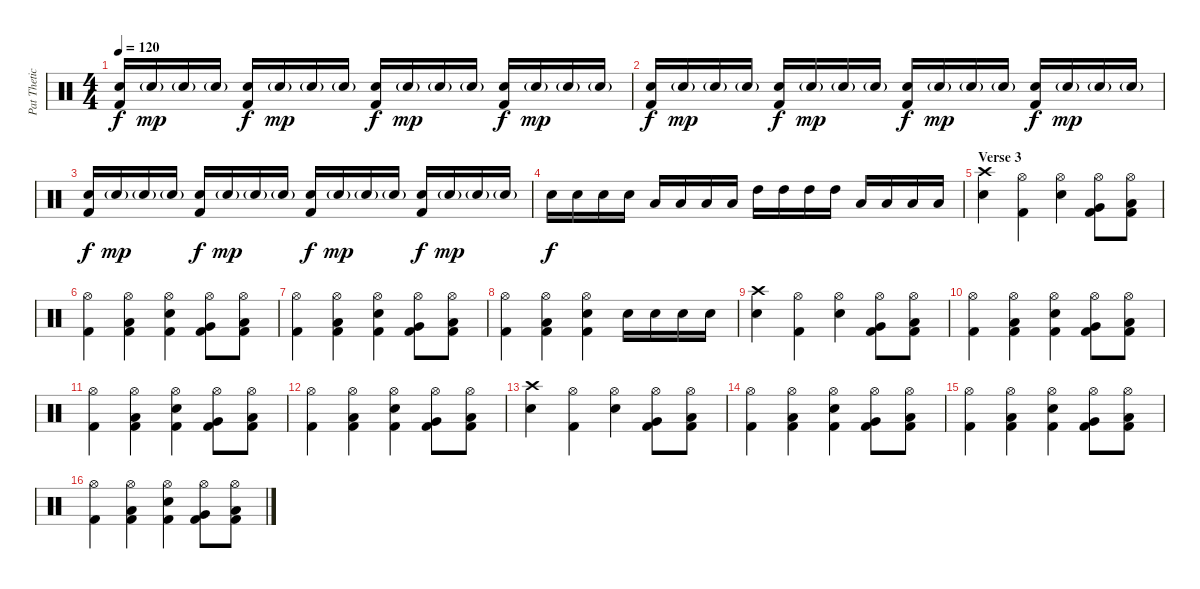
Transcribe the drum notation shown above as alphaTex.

\track ("Pat Thetic (Drums)" "Pat Thetic") {instrument percussion}
\staff {score}
\articulation defaults
\ts (4 4)
\tempo 120
\clef neutral
\ks c
("Electric Snare (hit)" "Kick (hit) 2").16{dy f} "Electric Snare (hit)"{g}.16{dy mp} "Electric Snare (hit)"{g}.16 "Electric Snare (hit)"{g}.16 ("Electric Snare (hit)" "Kick (hit) 2").16{dy f} "Electric Snare (hit)"{g}.16{dy mp} "Electric Snare (hit)"{g}.16 "Electric Snare (hit)"{g}.16 ("Electric Snare (hit)" "Kick (hit) 2").16{dy f} "Electric Snare (hit)"{g}.16{dy mp} "Electric Snare (hit)"{g}.16 "Electric Snare (hit)"{g}.16 ("Electric Snare (hit)" "Kick (hit) 2").16{dy f} "Electric Snare (hit)"{g}.16{dy mp} "Electric Snare (hit)"{g}.16 "Electric Snare (hit)"{g}.16 |
("Electric Snare (hit)" "Kick (hit) 2").16{dy f} "Electric Snare (hit)"{g}.16{dy mp} "Electric Snare (hit)"{g}.16 "Electric Snare (hit)"{g}.16 ("Electric Snare (hit)" "Kick (hit) 2").16{dy f} "Electric Snare (hit)"{g}.16{dy mp} "Electric Snare (hit)"{g}.16 "Electric Snare (hit)"{g}.16 ("Electric Snare (hit)" "Kick (hit) 2").16{dy f} "Electric Snare (hit)"{g}.16{dy mp} "Electric Snare (hit)"{g}.16 "Electric Snare (hit)"{g}.16 ("Electric Snare (hit)" "Kick (hit) 2").16{dy f} "Electric Snare (hit)"{g}.16{dy mp} "Electric Snare (hit)"{g}.16 "Electric Snare (hit)"{g}.16 |
("Electric Snare (hit)" "Kick (hit) 2").16{dy f} "Electric Snare (hit)"{g}.16{dy mp} "Electric Snare (hit)"{g}.16 "Electric Snare (hit)"{g}.16 ("Electric Snare (hit)" "Kick (hit) 2").16{dy f} "Electric Snare (hit)"{g}.16{dy mp} "Electric Snare (hit)"{g}.16 "Electric Snare (hit)"{g}.16 ("Electric Snare (hit)" "Kick (hit) 2").16{dy f} "Electric Snare (hit)"{g}.16{dy mp} "Electric Snare (hit)"{g}.16 "Electric Snare (hit)"{g}.16 ("Electric Snare (hit)" "Kick (hit) 2").16{dy f} "Electric Snare (hit)"{g}.16{dy mp} "Electric Snare (hit)"{g}.16 "Electric Snare (hit)"{g}.16 |
"Electric Snare (hit)".16{dy f} "Electric Snare (hit)".16 "Electric Snare (hit)".16 "Electric Snare (hit)".16 "Low Tom (hit)".16 "Low Tom (hit)".16 "Low Tom (hit)".16 "Low Tom (hit)".16 "High Tom (hit)".16 "High Tom (hit)".16 "High Tom (hit)".16 "High Tom (hit)".16 "Low Floor Tom (hit)".16 "Low Floor Tom (hit)".16 "Low Floor Tom (hit)".16 "Low Floor Tom (hit)".16 |
\section ("" "Verse 3")
("Crash high (hit)" "Electric Snare (hit)").4 ("Hi-Hat (open)" "Kick (hit) 2").4 ("Hi-Hat (open)" "Electric Snare (hit)").4 ("Hi-Hat (open)" "Very Low Tom (hit)" "Kick (hit) 2").8 ("Hi-Hat (open)" "Low Floor Tom (hit)" "Kick (hit) 2").8 |
("Hi-Hat (open)" "Kick (hit) 2").4 ("Hi-Hat (open)" "Low Floor Tom (hit)" "Kick (hit) 2").4 ("Hi-Hat (open)" "Electric Snare (hit)" "Kick (hit) 2").4 ("Hi-Hat (open)" "Very Low Tom (hit)" "Kick (hit) 2").8 ("Hi-Hat (open)" "Low Floor Tom (hit)" "Kick (hit) 2").8 |
("Hi-Hat (open)" "Kick (hit) 2").4 ("Hi-Hat (open)" "Low Floor Tom (hit)" "Kick (hit) 2").4 ("Hi-Hat (open)" "Electric Snare (hit)" "Kick (hit) 2").4 ("Hi-Hat (open)" "Very Low Tom (hit)" "Kick (hit) 2").8 ("Hi-Hat (open)" "Low Floor Tom (hit)" "Kick (hit) 2").8 |
("Hi-Hat (open)" "Kick (hit) 2").4 ("Hi-Hat (open)" "Low Floor Tom (hit)" "Kick (hit) 2").4 ("Hi-Hat (open)" "Electric Snare (hit)" "Kick (hit) 2").4 "Electric Snare (hit)".16 "Electric Snare (hit)".16 "Electric Snare (hit)".16 "Electric Snare (hit)".16 |
("Crash high (hit)" "Electric Snare (hit)").4 ("Hi-Hat (open)" "Kick (hit) 2").4 ("Hi-Hat (open)" "Electric Snare (hit)").4 ("Hi-Hat (open)" "Very Low Tom (hit)" "Kick (hit) 2").8 ("Hi-Hat (open)" "Low Floor Tom (hit)" "Kick (hit) 2").8 |
("Hi-Hat (open)" "Kick (hit) 2").4 ("Hi-Hat (open)" "Low Floor Tom (hit)" "Kick (hit) 2").4 ("Hi-Hat (open)" "Electric Snare (hit)" "Kick (hit) 2").4 ("Hi-Hat (open)" "Very Low Tom (hit)" "Kick (hit) 2").8 ("Hi-Hat (open)" "Low Floor Tom (hit)" "Kick (hit) 2").8 |
("Hi-Hat (open)" "Kick (hit) 2").4 ("Hi-Hat (open)" "Low Floor Tom (hit)" "Kick (hit) 2").4 ("Hi-Hat (open)" "Electric Snare (hit)" "Kick (hit) 2").4 ("Hi-Hat (open)" "Very Low Tom (hit)" "Kick (hit) 2").8 ("Hi-Hat (open)" "Low Floor Tom (hit)" "Kick (hit) 2").8 |
("Hi-Hat (open)" "Kick (hit) 2").4 ("Hi-Hat (open)" "Low Floor Tom (hit)" "Kick (hit) 2").4 ("Hi-Hat (open)" "Electric Snare (hit)" "Kick (hit) 2").4 ("Hi-Hat (open)" "Very Low Tom (hit)" "Kick (hit) 2").8 ("Hi-Hat (open)" "Low Floor Tom (hit)" "Kick (hit) 2").8 |
("Crash high (hit)" "Electric Snare (hit)").4 ("Hi-Hat (open)" "Kick (hit) 2").4 ("Hi-Hat (open)" "Electric Snare (hit)").4 ("Hi-Hat (open)" "Very Low Tom (hit)" "Kick (hit) 2").8 ("Hi-Hat (open)" "Low Floor Tom (hit)" "Kick (hit) 2").8 |
("Hi-Hat (open)" "Kick (hit) 2").4 ("Hi-Hat (open)" "Low Floor Tom (hit)" "Kick (hit) 2").4 ("Hi-Hat (open)" "Electric Snare (hit)" "Kick (hit) 2").4 ("Hi-Hat (open)" "Very Low Tom (hit)" "Kick (hit) 2").8 ("Hi-Hat (open)" "Low Floor Tom (hit)" "Kick (hit) 2").8 |
("Hi-Hat (open)" "Kick (hit) 2").4 ("Hi-Hat (open)" "Low Floor Tom (hit)" "Kick (hit) 2").4 ("Hi-Hat (open)" "Electric Snare (hit)" "Kick (hit) 2").4 ("Hi-Hat (open)" "Very Low Tom (hit)" "Kick (hit) 2").8 ("Hi-Hat (open)" "Low Floor Tom (hit)" "Kick (hit) 2").8 |
("Hi-Hat (open)" "Kick (hit) 2").4 ("Hi-Hat (open)" "Low Floor Tom (hit)" "Kick (hit) 2").4 ("Hi-Hat (open)" "Electric Snare (hit)" "Kick (hit) 2").4 ("Hi-Hat (open)" "Very Low Tom (hit)" "Kick (hit) 2").8 ("Hi-Hat (open)" "Low Floor Tom (hit)" "Kick (hit) 2").8
